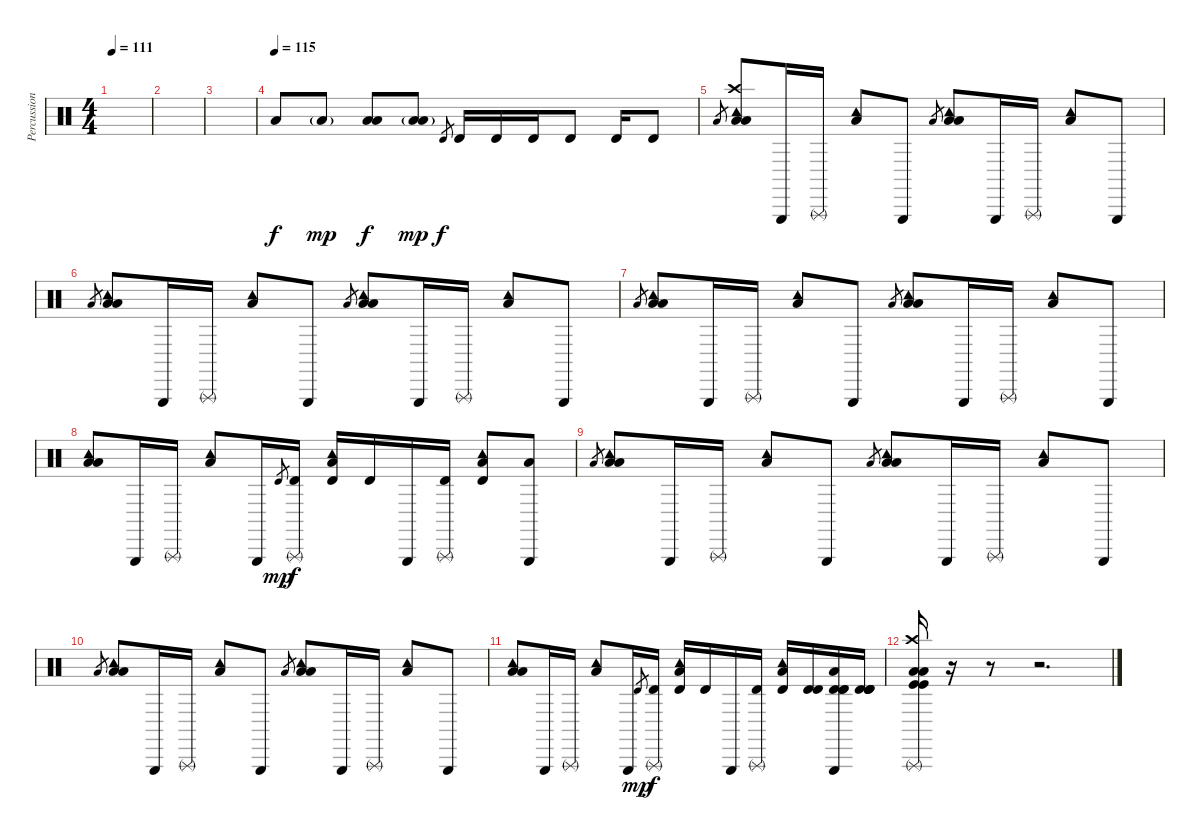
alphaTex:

\track ("Percussions" "Percussion") {instrument percussion}
\staff {score}
\articulation defaults
\ts (4 4)
\tempo 111
\clef neutral
\ks c
|
|
|
\tempo (115)
"Low Floor Tom (hit)".8{dy f} "Low Floor Tom (hit)"{g}.8{dy mp} ("Low Floor Tom (hit)" "Low Floor Tom (hit)").8{dy f} ("Low Floor Tom (hit)" "Low Floor Tom (hit)"{g}).8{dy mp} "Timbale high (hit)".8{gr dy f} "Timbale high (hit)".16 "Timbale high (hit)".16 "Timbale high (hit)".16 "Timbale high (hit)".8 "Timbale high (hit)".16 "Timbale high (hit)".8 |
"Low Floor Tom (hit)".8{gr} ("Crash high (hit)" "Tambourine (hit)" "Low Floor Tom (hit)" "Low Floor Tom (hit)").8 "Triangle (hit)".16 "Triangle (rnute)".16 ("Tambourine (hit)" "Low Floor Tom (hit)").8 "Triangle (hit)".8 "Low Floor Tom (hit)".8{gr} ("Tambourine (hit)" "Low Floor Tom (hit)" "Low Floor Tom (hit)").8 "Triangle (hit)".16 "Triangle (rnute)".16 ("Tambourine (hit)" "Low Floor Tom (hit)").8 "Triangle (hit)".8 |
"Low Floor Tom (hit)".8{gr} ("Tambourine (hit)" "Low Floor Tom (hit)" "Low Floor Tom (hit)").8 "Triangle (hit)".16 "Triangle (rnute)".16 ("Tambourine (hit)" "Low Floor Tom (hit)").8 "Triangle (hit)".8 "Low Floor Tom (hit)".8{gr} ("Tambourine (hit)" "Low Floor Tom (hit)" "Low Floor Tom (hit)").8 "Triangle (hit)".16 "Triangle (rnute)".16 ("Tambourine (hit)" "Low Floor Tom (hit)").8 "Triangle (hit)".8 |
"Low Floor Tom (hit)".8{gr} ("Tambourine (hit)" "Low Floor Tom (hit)" "Low Floor Tom (hit)").8 "Triangle (hit)".16 "Triangle (rnute)".16 ("Tambourine (hit)" "Low Floor Tom (hit)").8 "Triangle (hit)".8 "Low Floor Tom (hit)".8{gr} ("Tambourine (hit)" "Low Floor Tom (hit)" "Low Floor Tom (hit)").8 "Triangle (hit)".16 "Triangle (rnute)".16 ("Tambourine (hit)" "Low Floor Tom (hit)").8 "Triangle (hit)".8 |
("Tambourine (hit)" "Low Floor Tom (hit)" "Low Floor Tom (hit)").8 "Triangle (hit)".16 "Triangle (rnute)".16 ("Tambourine (hit)" "Low Floor Tom (hit)").8 "Triangle (hit)".16 "Timbale high (hit)".8{gr dy mp} ("Triangle (rnute)" "Timbale high (hit)").16{dy f} ("Low Floor Tom (hit)" "Tambourine (hit)" "Timbale high (hit)").16 "Timbale high (hit)".16 "Triangle (hit)".16 ("Triangle (rnute)" "Timbale high (hit)").16 ("Tambourine (hit)" "Low Floor Tom (hit)" "Timbale high (hit)").8 ("Triangle (hit)" "Low Floor Tom (hit)").8 |
"Low Floor Tom (hit)".8{gr} ("Tambourine (hit)" "Low Floor Tom (hit)" "Low Floor Tom (hit)").8 "Triangle (hit)".16 "Triangle (rnute)".16 ("Tambourine (hit)" "Low Floor Tom (hit)").8 "Triangle (hit)".8 "Low Floor Tom (hit)".8{gr} ("Tambourine (hit)" "Low Floor Tom (hit)" "Low Floor Tom (hit)").8 "Triangle (hit)".16 "Triangle (rnute)".16 ("Tambourine (hit)" "Low Floor Tom (hit)").8 "Triangle (hit)".8 |
"Low Floor Tom (hit)".8{gr} ("Tambourine (hit)" "Low Floor Tom (hit)" "Low Floor Tom (hit)").8 "Triangle (hit)".16 "Triangle (rnute)".16 ("Tambourine (hit)" "Low Floor Tom (hit)").8 "Triangle (hit)".8 "Low Floor Tom (hit)".8{gr} ("Tambourine (hit)" "Low Floor Tom (hit)" "Low Floor Tom (hit)").8 "Triangle (hit)".16 "Triangle (rnute)".16 ("Tambourine (hit)" "Low Floor Tom (hit)").8 "Triangle (hit)".8 |
("Tambourine (hit)" "Low Floor Tom (hit)" "Low Floor Tom (hit)").8 "Triangle (hit)".16 "Triangle (rnute)".16 ("Tambourine (hit)" "Low Floor Tom (hit)").8 "Triangle (hit)".16 "Timbale high (hit)".8{gr dy mp} ("Triangle (rnute)" "Timbale high (hit)").16{dy f} ("Low Floor Tom (hit)" "Tambourine (hit)" "Timbale high (hit)").16 "Timbale high (hit)".16 "Triangle (hit)".16 ("Triangle (rnute)" "Timbale high (hit)").16 ("Tambourine (hit)" "Low Floor Tom (hit)" "Timbale high (hit)").16 ("Timbale high (hit)" "Timbale high (hit)").16 ("Triangle (hit)" "Low Floor Tom (hit)" "Timbale high (hit)" "Timbale high (hit)" "Timbale high (hit)").16 ("Timbale high (hit)" "Timbale high (hit)" "Timbale high (hit)" "Timbale high (hit)").16 |
("Low Floor Tom (hit)" "Kick (hit)" "Crash high (hit)" "Kick (hit)" "Triangle (rnute)" "Low Floor Tom (hit)").16 r.16 r.8 r.2{d}
